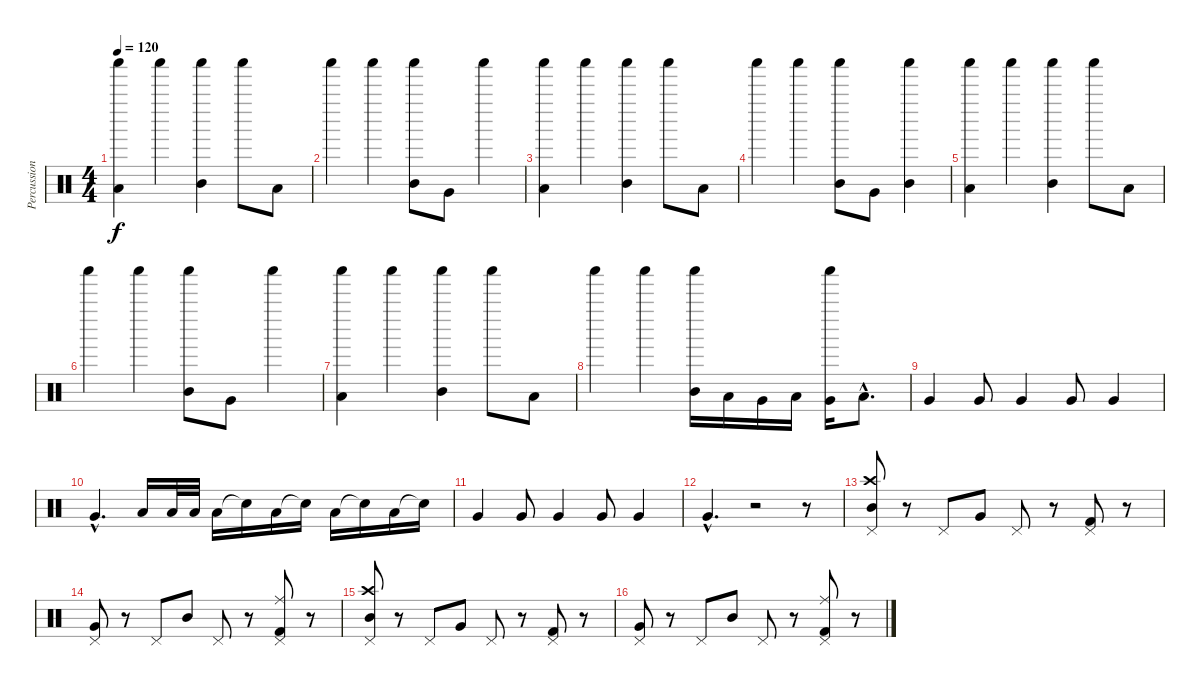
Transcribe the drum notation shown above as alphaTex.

\track ("Percussion" "Percussion") {instrument percussion}
\staff {score}
\articulation defaults
\ts (4 4)
\tempo 120
\clef neutral
\ks c
("Shaker (hit)" "Low Floor Tom (hit)").4{dy f} "Shaker (hit)".4 ("Shaker (hit)" "Mid Tom (hit)").4 "Shaker (hit)".8 "Low Floor Tom (hit)".8 |
"Shaker (hit)".4 "Shaker (hit)".4 ("Shaker (hit)" "Mid Tom (hit)").8 "Very Low Tom (hit)".8 "Shaker (hit)".4 |
("Shaker (hit)" "Low Floor Tom (hit)").4 "Shaker (hit)".4 ("Shaker (hit)" "Mid Tom (hit)").4 "Shaker (hit)".8 "Low Floor Tom (hit)".8 |
"Shaker (hit)".4 "Shaker (hit)".4 ("Shaker (hit)" "Mid Tom (hit)").8 "Very Low Tom (hit)".8 ("Shaker (hit)" "Mid Tom (hit)").4 |
("Shaker (hit)" "Low Floor Tom (hit)").4 "Shaker (hit)".4 ("Shaker (hit)" "Mid Tom (hit)").4 "Shaker (hit)".8 "Low Floor Tom (hit)".8 |
"Shaker (hit)".4 "Shaker (hit)".4 ("Shaker (hit)" "Mid Tom (hit)").8 "Very Low Tom (hit)".8 "Shaker (hit)".4 |
("Shaker (hit)" "Low Floor Tom (hit)").4 "Shaker (hit)".4 ("Shaker (hit)" "Mid Tom (hit)").4 "Shaker (hit)".8 "Low Floor Tom (hit)".8 |
"Shaker (hit)".4 "Shaker (hit)".4 ("Shaker (hit)" "Mid Tom (hit)").16 "Low Tom (hit)".16 "Very Low Tom (hit)".16 "Low Tom (hit)".16 ("Shaker (hit)" "Very Low Tom (hit)").16 "Low Floor Tom (hit)"{hac}.8{d} |
"Very Low Tom (hit)".4 "Very Low Tom (hit)".8 "Very Low Tom (hit)".4 "Very Low Tom (hit)".8 "Very Low Tom (hit)".4 |
"Very Low Tom (hit)"{hac}.4{d} "Low Tom (hit)".16 "Low Tom (hit)".32 "Low Tom (hit)".32 "Low Tom (hit)".16 "Snare (hit)"{t}.16 "Low Tom (hit)".16 "Snare (hit)"{t}.16 "Low Tom (hit)".16 "Snare (hit)"{t}.16 "Low Tom (hit)".16 "Snare (hit)"{t}.16 |
"Very Low Tom (hit)".4 "Very Low Tom (hit)".8 "Very Low Tom (hit)".4 "Very Low Tom (hit)".8 "Very Low Tom (hit)".4 |
"Very Low Tom (hit)"{hac}.4{d} r.2 r.8 |
("Crash high (hit)" "Mid Tom (hit)" "Pedal Hi-Hat (hit)").8 r.8 "Pedal Hi-Hat (hit)".8 "Very Low Tom (hit)".8 "Pedal Hi-Hat (hit)".8 r.8 ("Kick (hit) 2" "Pedal Hi-Hat (hit)").8 r.8 |
("Very Low Tom (hit)" "Pedal Hi-Hat (hit)").8 r.8 "Pedal Hi-Hat (hit)".8 "Mid Tom (hit)".8 "Pedal Hi-Hat (hit)".8 r.8 ("Ride (middle)" "Kick (hit) 2" "Pedal Hi-Hat (hit)").8 r.8 |
("Crash high (hit)" "Mid Tom (hit)" "Pedal Hi-Hat (hit)").8 r.8 "Pedal Hi-Hat (hit)".8 "Very Low Tom (hit)".8 "Pedal Hi-Hat (hit)".8 r.8 ("Kick (hit) 2" "Pedal Hi-Hat (hit)").8 r.8 |
("Very Low Tom (hit)" "Pedal Hi-Hat (hit)").8 r.8 "Pedal Hi-Hat (hit)".8 "Mid Tom (hit)".8 "Pedal Hi-Hat (hit)".8 r.8 ("Ride (middle)" "Kick (hit) 2" "Pedal Hi-Hat (hit)").8 r.8
